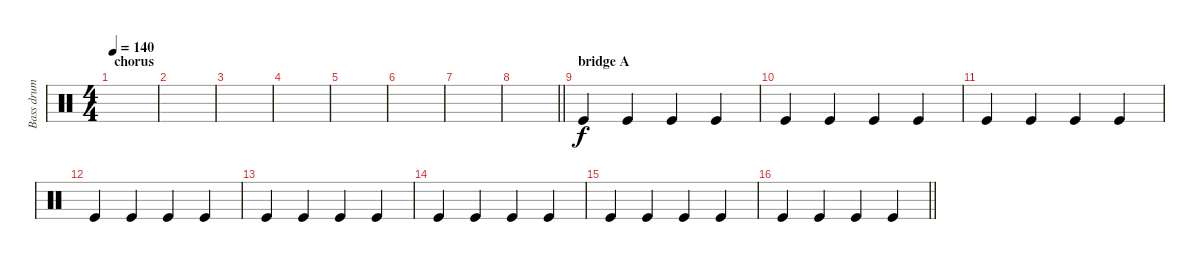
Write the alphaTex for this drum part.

\track ("Bass drum " "Bass drum ") {instrument percussion}
\staff {score}
\articulation defaults
\ts (4 4)
\section ("" "chorus")
\tempo 140
\clef neutral
\ks c
|
|
|
|
|
|
|
\barLineRight lightlight
|
\section ("" "bridge A")
"Kick (hit)".4 "Kick (hit)".4 "Kick (hit)".4 "Kick (hit)".4 |
"Kick (hit)".4 "Kick (hit)".4 "Kick (hit)".4 "Kick (hit)".4 |
"Kick (hit)".4 "Kick (hit)".4 "Kick (hit)".4 "Kick (hit)".4 |
"Kick (hit)".4 "Kick (hit)".4 "Kick (hit)".4 "Kick (hit)".4 |
"Kick (hit)".4 "Kick (hit)".4 "Kick (hit)".4 "Kick (hit)".4 |
"Kick (hit)".4 "Kick (hit)".4 "Kick (hit)".4 "Kick (hit)".4 |
"Kick (hit)".4 "Kick (hit)".4 "Kick (hit)".4 "Kick (hit)".4 |
\barLineRight lightlight "Kick (hit)".4 "Kick (hit)".4 "Kick (hit)".4 "Kick (hit)".4
